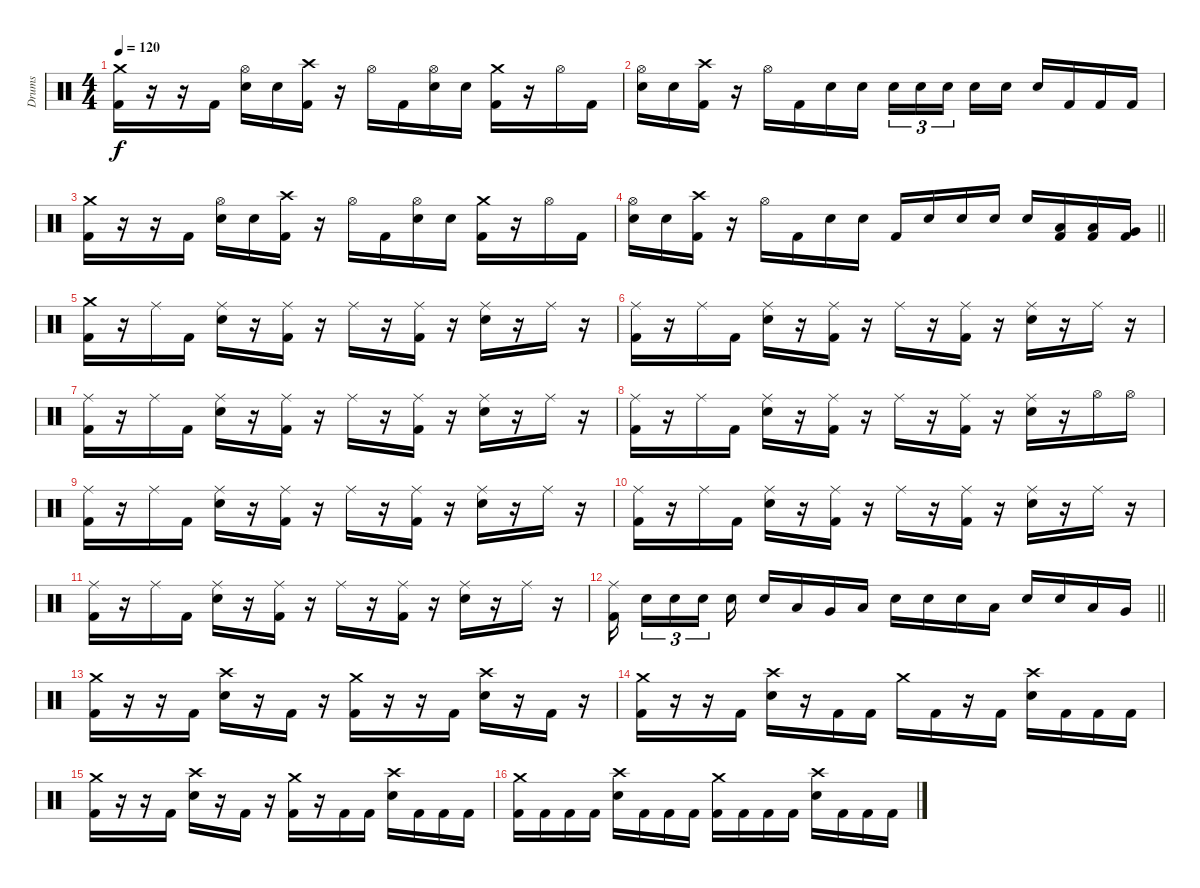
\track ("Drums" "Drums") {instrument percussion}
\staff {score}
\articulation defaults
\ts (4 4)
\tempo 120
\clef neutral
\ks c
("Crash medium (hit)" "Kick (hit) 2").16{dy f} r.16 r.16 "Kick (hit) 2".16 ("Hi-Hat (open)" "Electric Snare (hit)").16 "Electric Snare (hit)".16 ("Crash high (hit)" "Kick (hit) 2").16 r.16 "Hi-Hat (open)".16 "Kick (hit) 2".16 ("Hi-Hat (open)" "Electric Snare (hit)").16 "Electric Snare (hit)".16 ("Crash medium (hit)" "Kick (hit) 2").16 r.16 "Hi-Hat (open)".16 "Kick (hit) 2".16 |
("Hi-Hat (open)" "Electric Snare (hit)").16 "Electric Snare (hit)".16 ("Crash high (hit)" "Kick (hit) 2").16 r.16 "Hi-Hat (open)".16 "Kick (hit) 2".16 "Electric Snare (hit)".16 "Electric Snare (hit)".16 "Electric Snare (hit)".16{tu (3 2)} "Electric Snare (hit)".16{tu (3 2)} "Electric Snare (hit)".16{tu (3 2)} "Electric Snare (hit)".16 "Electric Snare (hit)".16 "Electric Snare (hit)".16 "Kick (hit) 2".16 "Kick (hit) 2".16 "Kick (hit) 2".16 |
("Crash medium (hit)" "Kick (hit) 2").16 r.16 r.16 "Kick (hit) 2".16 ("Hi-Hat (open)" "Electric Snare (hit)").16 "Electric Snare (hit)".16 ("Crash high (hit)" "Kick (hit) 2").16 r.16 "Hi-Hat (open)".16 "Kick (hit) 2".16 ("Hi-Hat (open)" "Electric Snare (hit)").16 "Electric Snare (hit)".16 ("Crash medium (hit)" "Kick (hit) 2").16 r.16 "Hi-Hat (open)".16 "Kick (hit) 2".16 |
\barLineRight lightlight
("Hi-Hat (open)" "Electric Snare (hit)").16 "Electric Snare (hit)".16 ("Crash high (hit)" "Kick (hit) 2").16 r.16 "Hi-Hat (open)".16 "Kick (hit) 2".16 "Electric Snare (hit)".16 "Electric Snare (hit)".16 "Kick (hit) 2".16 "Electric Snare (hit)".16 "Electric Snare (hit)".16 "Electric Snare (hit)".16 "Electric Snare (hit)".16 ("Low Tom (hit)" "Kick (hit) 2").16 ("Low Tom (hit)" "Kick (hit) 2").16 ("Very Low Tom (hit)" "Kick (hit) 2").16 |
\section ("" "")
("Crash medium (hit)" "Kick (hit) 2").16 r.16 "Ride (middle)".16 "Kick (hit) 2".16 ("Ride (middle)" "Electric Snare (hit)").16 r.16 ("Ride (middle)" "Kick (hit) 2").16 r.16 "Ride (middle)".16 r.16 ("Ride (middle)" "Kick (hit) 2").16 r.16 ("Ride (middle)" "Electric Snare (hit)").16 r.16 "Ride (middle)".16 r.16 |
("Ride (middle)" "Kick (hit) 2").16 r.16 "Ride (middle)".16 "Kick (hit) 2".16 ("Ride (middle)" "Electric Snare (hit)").16 r.16 ("Ride (middle)" "Kick (hit) 2").16 r.16 "Ride (middle)".16 r.16 ("Ride (middle)" "Kick (hit) 2").16 r.16 ("Ride (middle)" "Electric Snare (hit)").16 r.16 "Ride (middle)".16 r.16 |
("Ride (middle)" "Kick (hit) 2").16 r.16 "Ride (middle)".16 "Kick (hit) 2".16 ("Ride (middle)" "Electric Snare (hit)").16 r.16 ("Ride (middle)" "Kick (hit) 2").16 r.16 "Ride (middle)".16 r.16 ("Ride (middle)" "Kick (hit) 2").16 r.16 ("Ride (middle)" "Electric Snare (hit)").16 r.16 "Ride (middle)".16 r.16 |
("Ride (middle)" "Kick (hit) 2").16 r.16 "Ride (middle)".16 "Kick (hit) 2".16 ("Ride (middle)" "Electric Snare (hit)").16 r.16 ("Ride (middle)" "Kick (hit) 2").16 r.16 "Ride (middle)".16 r.16 ("Ride (middle)" "Kick (hit) 2").16 r.16 ("Ride (middle)" "Electric Snare (hit)").16 r.16 "Hi-Hat (open)".16 "Hi-Hat (open)".16 |
("Ride (middle)" "Kick (hit) 2").16 r.16 "Ride (middle)".16 "Kick (hit) 2".16 ("Ride (middle)" "Electric Snare (hit)").16 r.16 ("Ride (middle)" "Kick (hit) 2").16 r.16 "Ride (middle)".16 r.16 ("Ride (middle)" "Kick (hit) 2").16 r.16 ("Ride (middle)" "Electric Snare (hit)").16 r.16 "Ride (middle)".16 r.16 |
("Ride (middle)" "Kick (hit) 2").16 r.16 "Ride (middle)".16 "Kick (hit) 2".16 ("Ride (middle)" "Electric Snare (hit)").16 r.16 ("Ride (middle)" "Kick (hit) 2").16 r.16 "Ride (middle)".16 r.16 ("Ride (middle)" "Kick (hit) 2").16 r.16 ("Ride (middle)" "Electric Snare (hit)").16 r.16 "Ride (middle)".16 r.16 |
("Ride (middle)" "Kick (hit) 2").16 r.16 "Ride (middle)".16 "Kick (hit) 2".16 ("Ride (middle)" "Electric Snare (hit)").16 r.16 ("Ride (middle)" "Kick (hit) 2").16 r.16 "Ride (middle)".16 r.16 ("Ride (middle)" "Kick (hit) 2").16 r.16 ("Ride (middle)" "Electric Snare (hit)").16 r.16 "Ride (middle)".16 r.16 |
\barLineRight lightlight
("Ride (middle)" "Kick (hit) 2").16 "Electric Snare (hit)".16{tu (3 2)} "Electric Snare (hit)".16{tu (3 2)} "Electric Snare (hit)".16{tu (3 2)} "Electric Snare (hit)".16 "Electric Snare (hit)".16 "Low Tom (hit)".16 "Very Low Tom (hit)".16 "Low Floor Tom (hit)".16 "Electric Snare (hit)".16 "Electric Snare (hit)".16 "Electric Snare (hit)".16 "Low Floor Tom (hit)".16 "Electric Snare (hit)".16 "Electric Snare (hit)".16 "Low Tom (hit)".16 "Very Low Tom (hit)".16 |
\section ("" "")
("Crash medium (hit)" "Kick (hit) 2").16 r.16 r.16 "Kick (hit) 2".16 ("Crash high (hit)" "Electric Snare (hit)").16 r.16 "Kick (hit) 2".16 r.16 ("Crash medium (hit)" "Kick (hit) 2").16 r.16 r.16 "Kick (hit) 2".16 ("Crash high (hit)" "Electric Snare (hit)").16 r.16 "Kick (hit) 2".16 r.16 |
("Crash medium (hit)" "Kick (hit) 2").16 r.16 r.16 "Kick (hit) 2".16 ("Crash high (hit)" "Electric Snare (hit)").16 r.16 "Kick (hit) 2".16 "Kick (hit) 2".16 "Crash medium (hit)".16 "Kick (hit) 2".16 r.16 "Kick (hit) 2".16 ("Crash high (hit)" "Electric Snare (hit)").16 "Kick (hit) 2".16 "Kick (hit) 2".16 "Kick (hit) 2".16 |
("Crash medium (hit)" "Kick (hit) 2").16 r.16 r.16 "Kick (hit) 2".16 ("Crash high (hit)" "Electric Snare (hit)").16 r.16 "Kick (hit) 2".16 r.16 ("Crash medium (hit)" "Kick (hit) 2").16 r.16 "Kick (hit) 2".16 "Kick (hit) 2".16 ("Crash high (hit)" "Electric Snare (hit)").16 "Kick (hit) 2".16 "Kick (hit) 2".16 "Kick (hit) 2".16 |
("Crash medium (hit)" "Kick (hit) 2").16 "Kick (hit) 2".16 "Kick (hit) 2".16 "Kick (hit) 2".16 ("Crash high (hit)" "Electric Snare (hit)").16 "Kick (hit) 2".16 "Kick (hit) 2".16 "Kick (hit) 2".16 ("Crash medium (hit)" "Kick (hit) 2").16 "Kick (hit) 2".16 "Kick (hit) 2".16 "Kick (hit) 2".16 ("Crash high (hit)" "Electric Snare (hit)").16 "Kick (hit) 2".16 "Kick (hit) 2".16 "Kick (hit) 2".16
